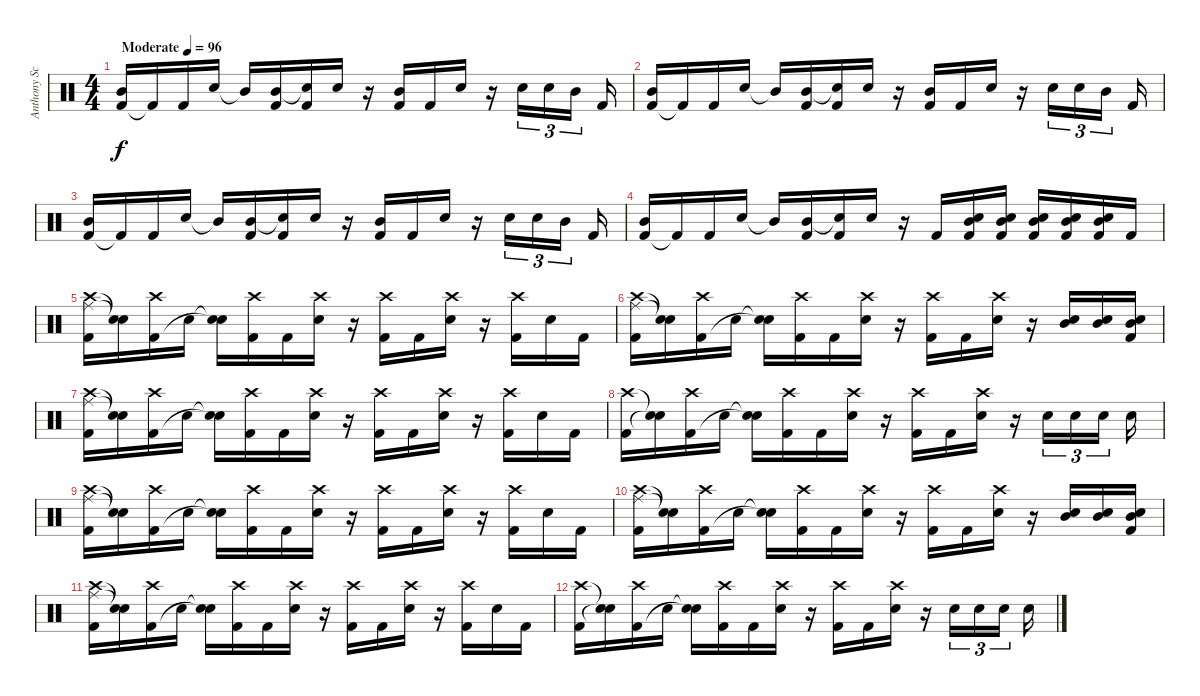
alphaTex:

\track ("Anthony Scarpelli" "Anthony Sc") {instrument percussion}
\staff {score}
\articulation defaults
\ts (4 4)
\tempo (96 "Moderate")
\clef neutral
\ks c
("Kick (hit) 2" "Mid Tom (hit)").16{dy f} "Kick (hit) 2"{t}.16 "Kick (hit) 2".16 "Electric Snare (hit)".16 "Mid Tom (hit)"{t}.16 ("Kick (hit) 2" "Mid Tom (hit)").16 ("Kick (hit) 2" "Electric Snare (hit)"{t}).16 "Electric Snare (hit)".16 r.16 ("Kick (hit) 2" "Mid Tom (hit)").16 "Kick (hit) 2".16 "Electric Snare (hit)".16 r.16 "Electric Snare (hit)".16{tu (3 2)} "Electric Snare (hit)".16{tu (3 2)} "Mid Tom (hit)".16{tu (3 2) beam splitsecondary} "Kick (hit) 2".16 |
("Kick (hit) 2" "Mid Tom (hit)").16 "Kick (hit) 2"{t}.16 "Kick (hit) 2".16 "Electric Snare (hit)".16 "Mid Tom (hit)"{t}.16 ("Kick (hit) 2" "Mid Tom (hit)").16 ("Kick (hit) 2" "Electric Snare (hit)"{t}).16 "Electric Snare (hit)".16 r.16 ("Kick (hit) 2" "Mid Tom (hit)").16 "Kick (hit) 2".16 "Electric Snare (hit)".16 r.16 "Electric Snare (hit)".16{tu (3 2)} "Electric Snare (hit)".16{tu (3 2)} "Mid Tom (hit)".16{tu (3 2) beam splitsecondary} "Kick (hit) 2".16 |
("Kick (hit) 2" "Mid Tom (hit)").16 "Kick (hit) 2"{t}.16 "Kick (hit) 2".16 "Electric Snare (hit)".16 "Mid Tom (hit)"{t}.16 ("Kick (hit) 2" "Mid Tom (hit)").16 ("Kick (hit) 2" "Electric Snare (hit)"{t}).16 "Electric Snare (hit)".16 r.16 ("Kick (hit) 2" "Mid Tom (hit)").16 "Kick (hit) 2".16 "Electric Snare (hit)".16 r.16 "Electric Snare (hit)".16{tu (3 2)} "Electric Snare (hit)".16{tu (3 2)} "Mid Tom (hit)".16{tu (3 2) beam splitsecondary} "Kick (hit) 2".16 |
("Kick (hit) 2" "Mid Tom (hit)").16 "Kick (hit) 2"{t}.16 "Kick (hit) 2".16 "Electric Snare (hit)".16 "Mid Tom (hit)"{t}.16 ("Kick (hit) 2" "Mid Tom (hit)").16 ("Kick (hit) 2" "Electric Snare (hit)"{t}).16 "Electric Snare (hit)".16 r.16 "Kick (hit) 2".16 ("Kick (hit) 2" "Mid Tom (hit)" "Electric Snare (hit)").16 ("Kick (hit) 2" "Mid Tom (hit)" "Electric Snare (hit)").16 ("Kick (hit) 2" "Mid Tom (hit)" "Electric Snare (hit)").16 ("Kick (hit) 2" "Mid Tom (hit)" "Electric Snare (hit)").16 ("Kick (hit) 2" "Mid Tom (hit)" "Electric Snare (hit)").16 "Kick (hit) 2".16 |
("Crash high (hit)" "Ride (middle)" "Kick (hit) 2").16 ("Snare (hit)"{t} "Snare (hit)"{t}).16 ("Crash high (hit)" "Kick (hit) 2").16 "Electric Snare (hit)".16 ("Snare (hit)"{t} "Snare (hit)"{t}).16 ("Crash high (hit)" "Kick (hit) 2").16 "Kick (hit) 2".16 ("Crash high (hit)" "Electric Snare (hit)").16 r.16 ("Crash high (hit)" "Kick (hit) 2").16 "Kick (hit) 2".16 ("Crash high (hit)" "Electric Snare (hit)").16 r.16 ("Crash high (hit)" "Kick (hit) 2").16 "Electric Snare (hit)".16 "Kick (hit) 2".16 |
("Crash high (hit)" "Ride (middle)" "Kick (hit) 2").16 ("Snare (hit)"{t} "Snare (hit)"{t}).16 ("Crash high (hit)" "Kick (hit) 2").16 "Electric Snare (hit)".16 ("Snare (hit)"{t} "Snare (hit)"{t}).16 ("Crash high (hit)" "Kick (hit) 2").16 "Kick (hit) 2".16 ("Crash high (hit)" "Electric Snare (hit)").16 r.16 ("Crash high (hit)" "Kick (hit) 2").16 "Kick (hit) 2".16 ("Crash high (hit)" "Electric Snare (hit)").16 r.16 ("Electric Snare (hit)" "Mid Tom (hit)").16 ("Electric Snare (hit)" "Mid Tom (hit)").16 ("Electric Snare (hit)" "Mid Tom (hit)" "Kick (hit) 2").16 |
("Crash high (hit)" "Ride (middle)" "Kick (hit) 2").16 ("Snare (hit)"{t} "Snare (hit)"{t}).16 ("Crash high (hit)" "Kick (hit) 2").16 "Electric Snare (hit)".16 ("Snare (hit)"{t} "Snare (hit)"{t}).16 ("Crash high (hit)" "Kick (hit) 2").16 "Kick (hit) 2".16 ("Crash high (hit)" "Electric Snare (hit)").16 r.16 ("Crash high (hit)" "Kick (hit) 2").16 "Kick (hit) 2".16 ("Crash high (hit)" "Electric Snare (hit)").16 r.16 ("Crash high (hit)" "Kick (hit) 2").16 "Electric Snare (hit)".16 "Kick (hit) 2".16 |
("Crash high (hit)" "Kick (hit) 2").16 ("Snare (hit)"{t} "Snare (hit)"{t}).16 ("Crash high (hit)" "Kick (hit) 2").16 "Electric Snare (hit)".16 ("Snare (hit)"{t} "Snare (hit)"{t}).16 ("Crash high (hit)" "Kick (hit) 2").16 "Kick (hit) 2".16 ("Crash high (hit)" "Electric Snare (hit)").16 r.16 ("Crash high (hit)" "Kick (hit) 2").16 "Kick (hit) 2".16 ("Crash high (hit)" "Electric Snare (hit)").16 r.16 "Electric Snare (hit)".16{tu (3 2)} "Electric Snare (hit)".16{tu (3 2)} "Electric Snare (hit)".16{tu (3 2) beam splitsecondary} "Electric Snare (hit)".16 |
("Crash high (hit)" "Ride (middle)" "Kick (hit) 2").16 ("Snare (hit)"{t} "Snare (hit)"{t}).16 ("Crash high (hit)" "Kick (hit) 2").16 "Electric Snare (hit)".16 ("Snare (hit)"{t} "Snare (hit)"{t}).16 ("Crash high (hit)" "Kick (hit) 2").16 "Kick (hit) 2".16 ("Crash high (hit)" "Electric Snare (hit)").16 r.16 ("Crash high (hit)" "Kick (hit) 2").16 "Kick (hit) 2".16 ("Crash high (hit)" "Electric Snare (hit)").16 r.16 ("Crash high (hit)" "Kick (hit) 2").16 "Electric Snare (hit)".16 "Kick (hit) 2".16 |
("Crash high (hit)" "Ride (middle)" "Kick (hit) 2").16 ("Snare (hit)"{t} "Snare (hit)"{t}).16 ("Crash high (hit)" "Kick (hit) 2").16 "Electric Snare (hit)".16 ("Snare (hit)"{t} "Snare (hit)"{t}).16 ("Crash high (hit)" "Kick (hit) 2").16 "Kick (hit) 2".16 ("Crash high (hit)" "Electric Snare (hit)").16 r.16 ("Crash high (hit)" "Kick (hit) 2").16 "Kick (hit) 2".16 ("Crash high (hit)" "Electric Snare (hit)").16 r.16 ("Electric Snare (hit)" "Mid Tom (hit)").16 ("Electric Snare (hit)" "Mid Tom (hit)").16 ("Electric Snare (hit)" "Mid Tom (hit)" "Kick (hit) 2").16 |
("Crash high (hit)" "Ride (middle)" "Kick (hit) 2").16 ("Snare (hit)"{t} "Snare (hit)"{t}).16 ("Crash high (hit)" "Kick (hit) 2").16 "Electric Snare (hit)".16 ("Snare (hit)"{t} "Snare (hit)"{t}).16 ("Crash high (hit)" "Kick (hit) 2").16 "Kick (hit) 2".16 ("Crash high (hit)" "Electric Snare (hit)").16 r.16 ("Crash high (hit)" "Kick (hit) 2").16 "Kick (hit) 2".16 ("Crash high (hit)" "Electric Snare (hit)").16 r.16 ("Crash high (hit)" "Kick (hit) 2").16 "Electric Snare (hit)".16 "Kick (hit) 2".16 |
("Crash high (hit)" "Kick (hit) 2").16 ("Snare (hit)"{t} "Snare (hit)"{t}).16 ("Crash high (hit)" "Kick (hit) 2").16 "Electric Snare (hit)".16 ("Snare (hit)"{t} "Snare (hit)"{t}).16 ("Crash high (hit)" "Kick (hit) 2").16 "Kick (hit) 2".16 ("Crash high (hit)" "Electric Snare (hit)").16 r.16 ("Crash high (hit)" "Kick (hit) 2").16 "Kick (hit) 2".16 ("Crash high (hit)" "Electric Snare (hit)").16 r.16 "Electric Snare (hit)".16{tu (3 2)} "Electric Snare (hit)".16{tu (3 2)} "Electric Snare (hit)".16{tu (3 2) beam splitsecondary} "Electric Snare (hit)".16
